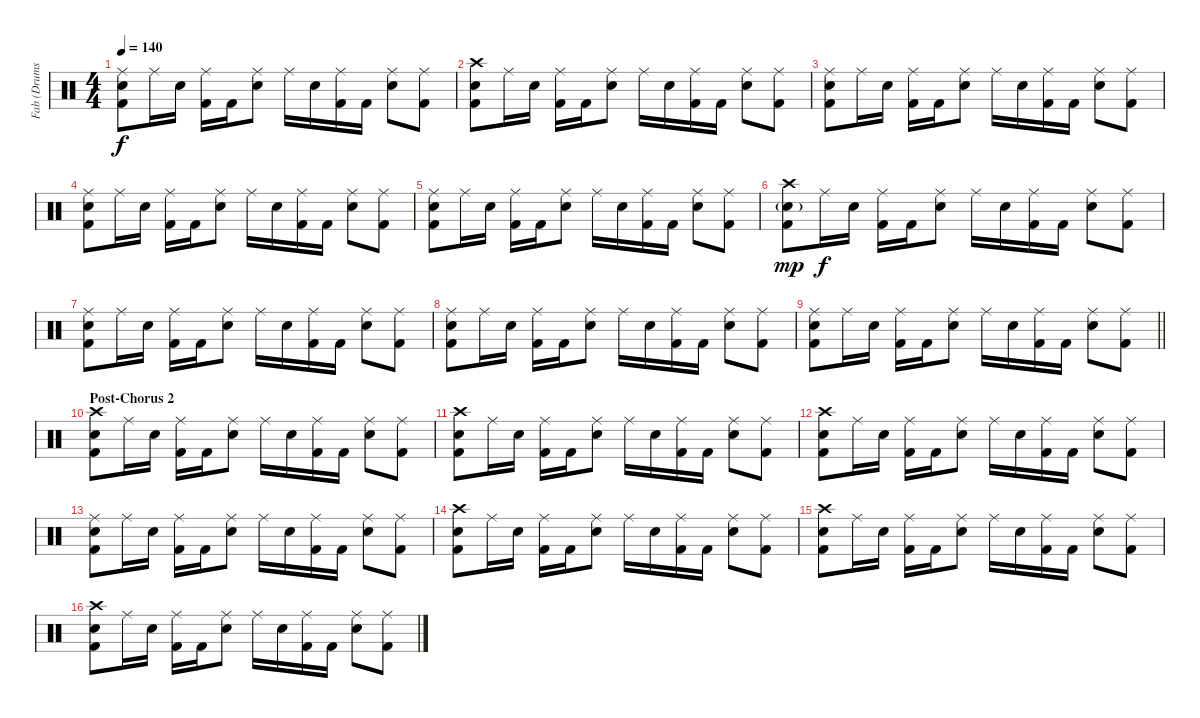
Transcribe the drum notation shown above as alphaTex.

\track ("Fab (Drums)" "Fab (Drums") {instrument percussion}
\staff {score}
\articulation defaults
\ts (4 4)
\tempo 140
\clef neutral
\ks c
("Ride (middle)" "Snare (hit) 2" "Kick (hit) 2").8{dy f} "Ride (middle)".16 "Snare (hit) 2".16 ("Ride (middle)" "Kick (hit) 2").16 "Kick (hit) 2".16 ("Ride (middle)" "Snare (hit) 2").8 "Ride (middle)".16 "Snare (hit) 2".16 ("Ride (middle)" "Kick (hit) 2").16 "Kick (hit) 2".16 ("Ride (middle)" "Snare (hit) 2").8 ("Ride (middle)" "Kick (hit) 2").8 |
("Crash high (hit)" "Snare (hit) 2" "Kick (hit) 2").8 "Ride (middle)".16 "Snare (hit) 2".16 ("Ride (middle)" "Kick (hit) 2").16 "Kick (hit) 2".16 ("Ride (middle)" "Snare (hit) 2").8 "Ride (middle)".16 "Snare (hit) 2".16 ("Ride (middle)" "Kick (hit) 2").16 "Kick (hit) 2".16 ("Ride (middle)" "Snare (hit) 2").8 ("Ride (middle)" "Kick (hit) 2").8 |
("Ride (middle)" "Snare (hit) 2" "Kick (hit) 2").8 "Ride (middle)".16 "Snare (hit) 2".16 ("Ride (middle)" "Kick (hit) 2").16 "Kick (hit) 2".16 ("Ride (middle)" "Snare (hit) 2").8 "Ride (middle)".16 "Snare (hit) 2".16 ("Ride (middle)" "Kick (hit) 2").16 "Kick (hit) 2".16 ("Ride (middle)" "Snare (hit) 2").8 ("Ride (middle)" "Kick (hit) 2").8 |
("Ride (middle)" "Snare (hit) 2" "Kick (hit) 2").8 "Ride (middle)".16 "Snare (hit) 2".16 ("Ride (middle)" "Kick (hit) 2").16 "Kick (hit) 2".16 ("Ride (middle)" "Snare (hit) 2").8 "Ride (middle)".16 "Snare (hit) 2".16 ("Ride (middle)" "Kick (hit) 2").16 "Kick (hit) 2".16 ("Ride (middle)" "Snare (hit) 2").8 ("Ride (middle)" "Kick (hit) 2").8 |
("Ride (middle)" "Snare (hit) 2" "Kick (hit) 2").8 "Ride (middle)".16 "Snare (hit) 2".16 ("Ride (middle)" "Kick (hit) 2").16 "Kick (hit) 2".16 ("Ride (middle)" "Snare (hit) 2").8 "Ride (middle)".16 "Snare (hit) 2".16 ("Ride (middle)" "Kick (hit) 2").16 "Kick (hit) 2".16 ("Ride (middle)" "Snare (hit) 2").8 ("Ride (middle)" "Kick (hit) 2").8 |
("Crash high (hit)" "Snare (hit) 2"{g} "Kick (hit) 2").8{dy mp} "Ride (middle)".16{dy f} "Snare (hit) 2".16 ("Ride (middle)" "Kick (hit) 2").16 "Kick (hit) 2".16 ("Ride (middle)" "Snare (hit) 2").8 "Ride (middle)".16 "Snare (hit) 2".16 ("Ride (middle)" "Kick (hit) 2").16 "Kick (hit) 2".16 ("Ride (middle)" "Snare (hit) 2").8 ("Ride (middle)" "Kick (hit) 2").8 |
("Ride (middle)" "Snare (hit) 2" "Kick (hit) 2").8 "Ride (middle)".16 "Snare (hit) 2".16 ("Ride (middle)" "Kick (hit) 2").16 "Kick (hit) 2".16 ("Ride (middle)" "Snare (hit) 2").8 "Ride (middle)".16 "Snare (hit) 2".16 ("Ride (middle)" "Kick (hit) 2").16 "Kick (hit) 2".16 ("Ride (middle)" "Snare (hit) 2").8 ("Ride (middle)" "Kick (hit) 2").8 |
("Ride (middle)" "Snare (hit) 2" "Kick (hit) 2").8 "Ride (middle)".16 "Snare (hit) 2".16 ("Ride (middle)" "Kick (hit) 2").16 "Kick (hit) 2".16 ("Ride (middle)" "Snare (hit) 2").8 "Ride (middle)".16 "Snare (hit) 2".16 ("Ride (middle)" "Kick (hit) 2").16 "Kick (hit) 2".16 ("Ride (middle)" "Snare (hit) 2").8 ("Ride (middle)" "Kick (hit) 2").8 |
\barLineRight lightlight
("Ride (middle)" "Snare (hit) 2" "Kick (hit) 2").8 "Ride (middle)".16 "Snare (hit) 2".16 ("Ride (middle)" "Kick (hit) 2").16 "Kick (hit) 2".16 ("Ride (middle)" "Snare (hit) 2").8 "Ride (middle)".16 "Snare (hit) 2".16 ("Ride (middle)" "Kick (hit) 2").16 "Kick (hit) 2".16 ("Ride (middle)" "Snare (hit) 2").8 ("Ride (middle)" "Kick (hit) 2").8 |
\section ("" "Post-Chorus 2")
("Crash high (hit)" "Snare (hit) 2" "Kick (hit) 2").8 "Ride (middle)".16 "Snare (hit) 2".16 ("Ride (middle)" "Kick (hit) 2").16 "Kick (hit) 2".16 ("Ride (middle)" "Snare (hit) 2").8 "Ride (middle)".16 "Snare (hit) 2".16 ("Ride (middle)" "Kick (hit) 2").16 "Kick (hit) 2".16 ("Ride (middle)" "Snare (hit) 2").8 ("Ride (middle)" "Kick (hit) 2").8 |
("Crash high (hit)" "Snare (hit) 2" "Kick (hit) 2").8 "Ride (middle)".16 "Snare (hit) 2".16 ("Ride (middle)" "Kick (hit) 2").16 "Kick (hit) 2".16 ("Ride (middle)" "Snare (hit) 2").8 "Ride (middle)".16 "Snare (hit) 2".16 ("Ride (middle)" "Kick (hit) 2").16 "Kick (hit) 2".16 ("Ride (middle)" "Snare (hit) 2").8 ("Ride (middle)" "Kick (hit) 2").8 |
("Crash high (hit)" "Snare (hit) 2" "Kick (hit) 2").8 "Ride (middle)".16 "Snare (hit) 2".16 ("Ride (middle)" "Kick (hit) 2").16 "Kick (hit) 2".16 ("Ride (middle)" "Snare (hit) 2").8 "Ride (middle)".16 "Snare (hit) 2".16 ("Ride (middle)" "Kick (hit) 2").16 "Kick (hit) 2".16 ("Ride (middle)" "Snare (hit) 2").8 ("Ride (middle)" "Kick (hit) 2").8 |
("Ride (middle)" "Snare (hit) 2" "Kick (hit) 2").8 "Ride (middle)".16 "Snare (hit) 2".16 ("Ride (middle)" "Kick (hit) 2").16 "Kick (hit) 2".16 ("Ride (middle)" "Snare (hit) 2").8 "Ride (middle)".16 "Snare (hit) 2".16 ("Ride (middle)" "Kick (hit) 2").16 "Kick (hit) 2".16 ("Ride (middle)" "Snare (hit) 2").8 ("Ride (middle)" "Kick (hit) 2").8 |
("Crash high (hit)" "Snare (hit) 2" "Kick (hit) 2").8 "Ride (middle)".16 "Snare (hit) 2".16 ("Ride (middle)" "Kick (hit) 2").16 "Kick (hit) 2".16 ("Ride (middle)" "Snare (hit) 2").8 "Ride (middle)".16 "Snare (hit) 2".16 ("Ride (middle)" "Kick (hit) 2").16 "Kick (hit) 2".16 ("Ride (middle)" "Snare (hit) 2").8 ("Ride (middle)" "Kick (hit) 2").8 |
("Crash high (hit)" "Snare (hit) 2" "Kick (hit) 2").8 "Ride (middle)".16 "Snare (hit) 2".16 ("Ride (middle)" "Kick (hit) 2").16 "Kick (hit) 2".16 ("Ride (middle)" "Snare (hit) 2").8 "Ride (middle)".16 "Snare (hit) 2".16 ("Ride (middle)" "Kick (hit) 2").16 "Kick (hit) 2".16 ("Ride (middle)" "Snare (hit) 2").8 ("Ride (middle)" "Kick (hit) 2").8 |
("Crash high (hit)" "Snare (hit) 2" "Kick (hit) 2").8 "Ride (middle)".16 "Snare (hit) 2".16 ("Ride (middle)" "Kick (hit) 2").16 "Kick (hit) 2".16 ("Ride (middle)" "Snare (hit) 2").8 "Ride (middle)".16 "Snare (hit) 2".16 ("Ride (middle)" "Kick (hit) 2").16 "Kick (hit) 2".16 ("Ride (middle)" "Snare (hit) 2").8 ("Ride (middle)" "Kick (hit) 2").8
